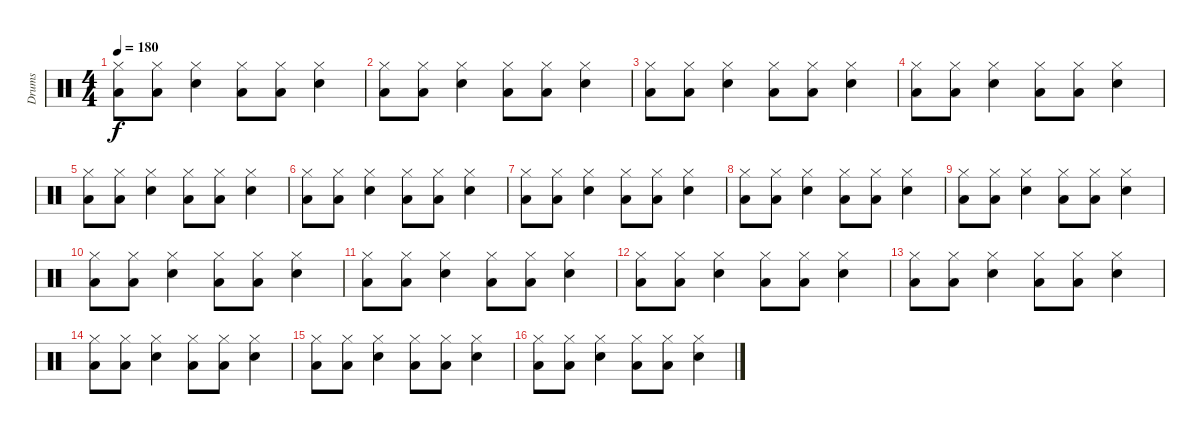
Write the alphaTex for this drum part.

\track ("Drums" "Drums") {instrument percussion}
\staff {score}
\articulation defaults
\ts (4 4)
\tempo 180
\clef neutral
\ks c
("Hi-Hat (closed)" "Low Tom (hit)").8{dy f} ("Hi-Hat (closed)" "Low Tom (hit)").8 ("Hi-Hat (closed)" "Electric Snare (hit)").4 ("Hi-Hat (closed)" "Low Tom (hit)").8 ("Hi-Hat (closed)" "Low Tom (hit)").8 ("Hi-Hat (closed)" "Electric Snare (hit)").4 |
("Hi-Hat (closed)" "Low Tom (hit)").8 ("Hi-Hat (closed)" "Low Tom (hit)").8 ("Hi-Hat (closed)" "Electric Snare (hit)").4 ("Hi-Hat (closed)" "Low Tom (hit)").8 ("Hi-Hat (closed)" "Low Tom (hit)").8 ("Hi-Hat (closed)" "Electric Snare (hit)").4 |
("Hi-Hat (closed)" "Low Tom (hit)").8 ("Hi-Hat (closed)" "Low Tom (hit)").8 ("Hi-Hat (closed)" "Electric Snare (hit)").4 ("Hi-Hat (closed)" "Low Tom (hit)").8 ("Hi-Hat (closed)" "Low Tom (hit)").8 ("Hi-Hat (closed)" "Electric Snare (hit)").4 |
("Hi-Hat (closed)" "Low Tom (hit)").8 ("Hi-Hat (closed)" "Low Tom (hit)").8 ("Hi-Hat (closed)" "Electric Snare (hit)").4 ("Hi-Hat (closed)" "Low Tom (hit)").8 ("Hi-Hat (closed)" "Low Tom (hit)").8 ("Hi-Hat (closed)" "Electric Snare (hit)").4 |
("Hi-Hat (closed)" "Low Tom (hit)").8 ("Hi-Hat (closed)" "Low Tom (hit)").8 ("Hi-Hat (closed)" "Electric Snare (hit)").4 ("Hi-Hat (closed)" "Low Tom (hit)").8 ("Hi-Hat (closed)" "Low Tom (hit)").8 ("Hi-Hat (closed)" "Electric Snare (hit)").4 |
("Hi-Hat (closed)" "Low Tom (hit)").8 ("Hi-Hat (closed)" "Low Tom (hit)").8 ("Hi-Hat (closed)" "Electric Snare (hit)").4 ("Hi-Hat (closed)" "Low Tom (hit)").8 ("Hi-Hat (closed)" "Low Tom (hit)").8 ("Hi-Hat (closed)" "Electric Snare (hit)").4 |
("Hi-Hat (closed)" "Low Tom (hit)").8 ("Hi-Hat (closed)" "Low Tom (hit)").8 ("Hi-Hat (closed)" "Electric Snare (hit)").4 ("Hi-Hat (closed)" "Low Tom (hit)").8 ("Hi-Hat (closed)" "Low Tom (hit)").8 ("Hi-Hat (closed)" "Electric Snare (hit)").4 |
("Hi-Hat (closed)" "Low Tom (hit)").8 ("Hi-Hat (closed)" "Low Tom (hit)").8 ("Hi-Hat (closed)" "Electric Snare (hit)").4 ("Hi-Hat (closed)" "Low Tom (hit)").8 ("Hi-Hat (closed)" "Low Tom (hit)").8 ("Hi-Hat (closed)" "Electric Snare (hit)").4 |
("Hi-Hat (closed)" "Low Tom (hit)").8 ("Hi-Hat (closed)" "Low Tom (hit)").8 ("Hi-Hat (closed)" "Electric Snare (hit)").4 ("Hi-Hat (closed)" "Low Tom (hit)").8 ("Hi-Hat (closed)" "Low Tom (hit)").8 ("Hi-Hat (closed)" "Electric Snare (hit)").4 |
("Hi-Hat (closed)" "Low Tom (hit)").8 ("Hi-Hat (closed)" "Low Tom (hit)").8 ("Hi-Hat (closed)" "Electric Snare (hit)").4 ("Hi-Hat (closed)" "Low Tom (hit)").8 ("Hi-Hat (closed)" "Low Tom (hit)").8 ("Hi-Hat (closed)" "Electric Snare (hit)").4 |
("Hi-Hat (closed)" "Low Tom (hit)").8 ("Hi-Hat (closed)" "Low Tom (hit)").8 ("Hi-Hat (closed)" "Electric Snare (hit)").4 ("Hi-Hat (closed)" "Low Tom (hit)").8 ("Hi-Hat (closed)" "Low Tom (hit)").8 ("Hi-Hat (closed)" "Electric Snare (hit)").4 |
("Hi-Hat (closed)" "Low Tom (hit)").8 ("Hi-Hat (closed)" "Low Tom (hit)").8 ("Hi-Hat (closed)" "Electric Snare (hit)").4 ("Hi-Hat (closed)" "Low Tom (hit)").8 ("Hi-Hat (closed)" "Low Tom (hit)").8 ("Hi-Hat (closed)" "Electric Snare (hit)").4 |
("Hi-Hat (closed)" "Low Tom (hit)").8 ("Hi-Hat (closed)" "Low Tom (hit)").8 ("Hi-Hat (closed)" "Electric Snare (hit)").4 ("Hi-Hat (closed)" "Low Tom (hit)").8 ("Hi-Hat (closed)" "Low Tom (hit)").8 ("Hi-Hat (closed)" "Electric Snare (hit)").4 |
("Hi-Hat (closed)" "Low Tom (hit)").8 ("Hi-Hat (closed)" "Low Tom (hit)").8 ("Hi-Hat (closed)" "Electric Snare (hit)").4 ("Hi-Hat (closed)" "Low Tom (hit)").8 ("Hi-Hat (closed)" "Low Tom (hit)").8 ("Hi-Hat (closed)" "Electric Snare (hit)").4 |
("Hi-Hat (closed)" "Low Tom (hit)").8 ("Hi-Hat (closed)" "Low Tom (hit)").8 ("Hi-Hat (closed)" "Electric Snare (hit)").4 ("Hi-Hat (closed)" "Low Tom (hit)").8 ("Hi-Hat (closed)" "Low Tom (hit)").8 ("Hi-Hat (closed)" "Electric Snare (hit)").4 |
("Hi-Hat (closed)" "Low Tom (hit)").8 ("Hi-Hat (closed)" "Low Tom (hit)").8 ("Hi-Hat (closed)" "Electric Snare (hit)").4 ("Hi-Hat (closed)" "Low Tom (hit)").8 ("Hi-Hat (closed)" "Low Tom (hit)").8 ("Hi-Hat (closed)" "Electric Snare (hit)").4
